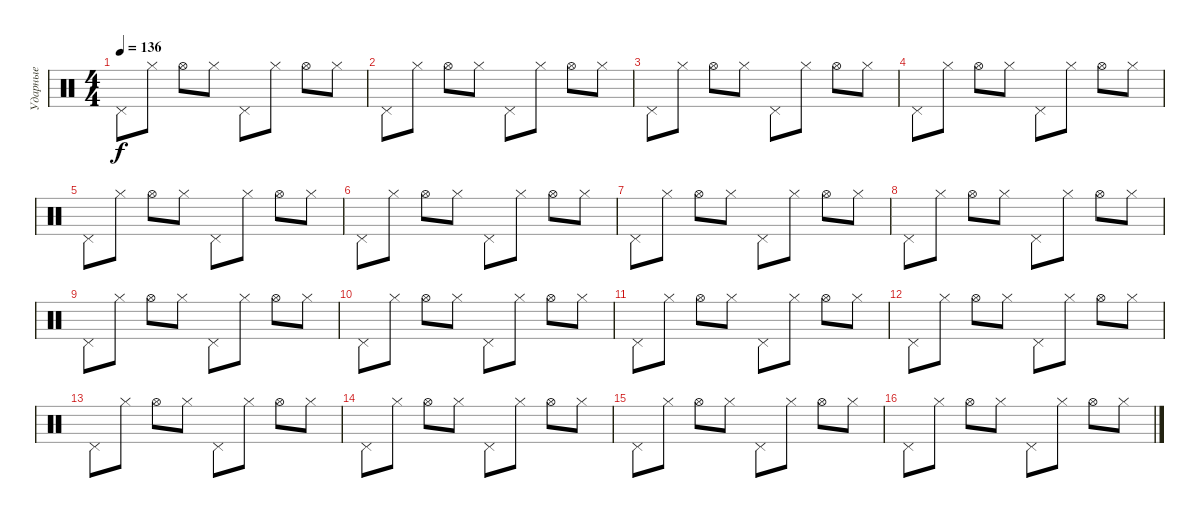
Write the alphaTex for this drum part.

\track ("Ударные" "Ударные") {instrument percussion}
\staff {score}
\articulation defaults
\ts (4 4)
\tempo 136
\clef neutral
\ks c "Pedal Hi-Hat (hit)".8{dy f} "Hi-Hat (closed)".8 "Hi-Hat (open)".8 "Hi-Hat (closed)".8 "Pedal Hi-Hat (hit)".8 "Hi-Hat (closed)".8 "Hi-Hat (open)".8 "Hi-Hat (closed)".8
|
"Pedal Hi-Hat (hit)".8 "Hi-Hat (closed)".8 "Hi-Hat (open)".8 "Hi-Hat (closed)".8 "Pedal Hi-Hat (hit)".8 "Hi-Hat (closed)".8 "Hi-Hat (open)".8 "Hi-Hat (closed)".8 |
"Pedal Hi-Hat (hit)".8 "Hi-Hat (closed)".8 "Hi-Hat (open)".8 "Hi-Hat (closed)".8 "Pedal Hi-Hat (hit)".8 "Hi-Hat (closed)".8 "Hi-Hat (open)".8 "Hi-Hat (closed)".8 |
"Pedal Hi-Hat (hit)".8 "Hi-Hat (closed)".8 "Hi-Hat (open)".8 "Hi-Hat (closed)".8 "Pedal Hi-Hat (hit)".8 "Hi-Hat (closed)".8 "Hi-Hat (open)".8 "Hi-Hat (closed)".8 |
"Pedal Hi-Hat (hit)".8 "Hi-Hat (closed)".8 "Hi-Hat (open)".8 "Hi-Hat (closed)".8 "Pedal Hi-Hat (hit)".8 "Hi-Hat (closed)".8 "Hi-Hat (open)".8 "Hi-Hat (closed)".8 |
"Pedal Hi-Hat (hit)".8 "Hi-Hat (closed)".8 "Hi-Hat (open)".8 "Hi-Hat (closed)".8 "Pedal Hi-Hat (hit)".8 "Hi-Hat (closed)".8 "Hi-Hat (open)".8 "Hi-Hat (closed)".8 |
"Pedal Hi-Hat (hit)".8 "Hi-Hat (closed)".8 "Hi-Hat (open)".8 "Hi-Hat (closed)".8 "Pedal Hi-Hat (hit)".8 "Hi-Hat (closed)".8 "Hi-Hat (open)".8 "Hi-Hat (closed)".8 |
"Pedal Hi-Hat (hit)".8 "Hi-Hat (closed)".8 "Hi-Hat (open)".8 "Hi-Hat (closed)".8 "Pedal Hi-Hat (hit)".8 "Hi-Hat (closed)".8 "Hi-Hat (open)".8 "Hi-Hat (closed)".8 |
"Pedal Hi-Hat (hit)".8 "Hi-Hat (closed)".8 "Hi-Hat (open)".8 "Hi-Hat (closed)".8 "Pedal Hi-Hat (hit)".8 "Hi-Hat (closed)".8 "Hi-Hat (open)".8 "Hi-Hat (closed)".8 |
"Pedal Hi-Hat (hit)".8 "Hi-Hat (closed)".8 "Hi-Hat (open)".8 "Hi-Hat (closed)".8 "Pedal Hi-Hat (hit)".8 "Hi-Hat (closed)".8 "Hi-Hat (open)".8 "Hi-Hat (closed)".8 |
"Pedal Hi-Hat (hit)".8 "Hi-Hat (closed)".8 "Hi-Hat (open)".8 "Hi-Hat (closed)".8 "Pedal Hi-Hat (hit)".8 "Hi-Hat (closed)".8 "Hi-Hat (open)".8 "Hi-Hat (closed)".8 |
"Pedal Hi-Hat (hit)".8 "Hi-Hat (closed)".8 "Hi-Hat (open)".8 "Hi-Hat (closed)".8 "Pedal Hi-Hat (hit)".8 "Hi-Hat (closed)".8 "Hi-Hat (open)".8 "Hi-Hat (closed)".8 |
"Pedal Hi-Hat (hit)".8 "Hi-Hat (closed)".8 "Hi-Hat (open)".8 "Hi-Hat (closed)".8 "Pedal Hi-Hat (hit)".8 "Hi-Hat (closed)".8 "Hi-Hat (open)".8 "Hi-Hat (closed)".8 |
"Pedal Hi-Hat (hit)".8 "Hi-Hat (closed)".8 "Hi-Hat (open)".8 "Hi-Hat (closed)".8 "Pedal Hi-Hat (hit)".8 "Hi-Hat (closed)".8 "Hi-Hat (open)".8 "Hi-Hat (closed)".8 |
"Pedal Hi-Hat (hit)".8 "Hi-Hat (closed)".8 "Hi-Hat (open)".8 "Hi-Hat (closed)".8 "Pedal Hi-Hat (hit)".8 "Hi-Hat (closed)".8 "Hi-Hat (open)".8 "Hi-Hat (closed)".8 |
"Pedal Hi-Hat (hit)".8 "Hi-Hat (closed)".8 "Hi-Hat (open)".8 "Hi-Hat (closed)".8 "Pedal Hi-Hat (hit)".8 "Hi-Hat (closed)".8 "Hi-Hat (open)".8 "Hi-Hat (closed)".8
